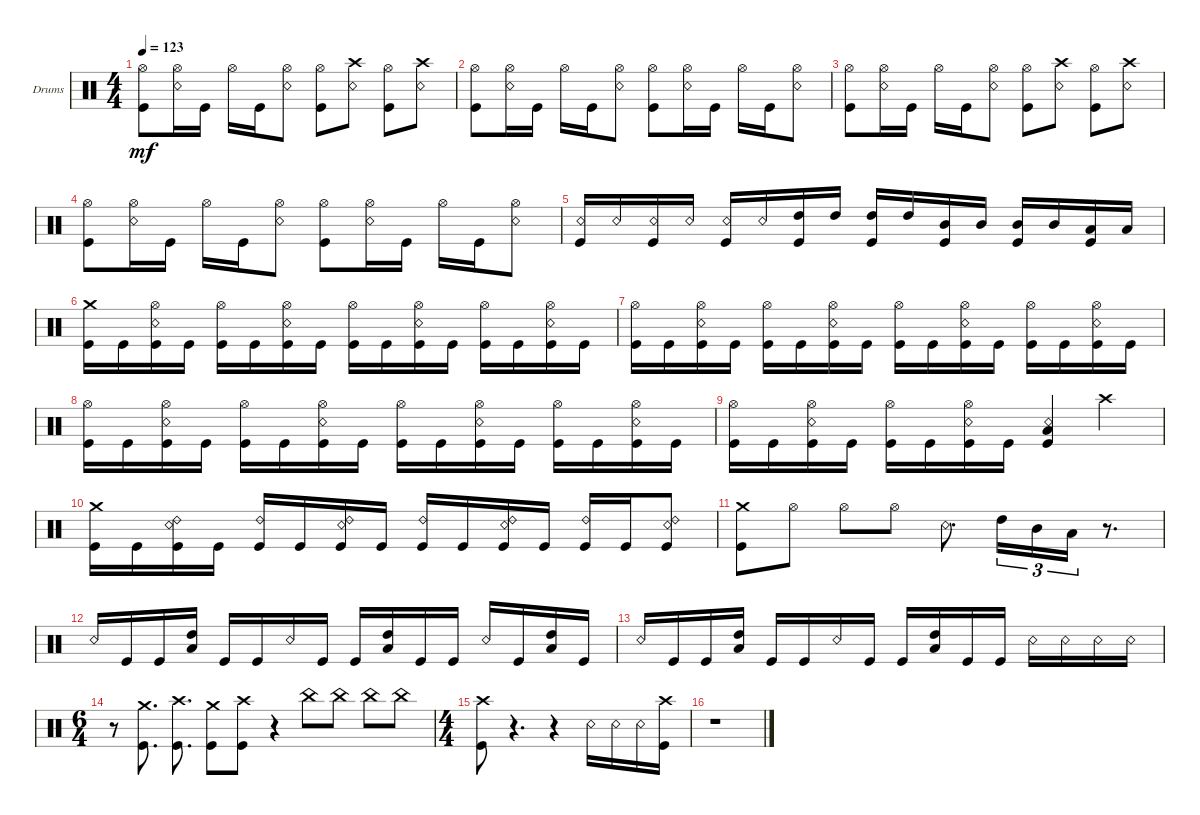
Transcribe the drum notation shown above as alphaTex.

\defaultSystemsLayout 4
\bracketExtendMode groupsimilarinstruments
\firstSystemTrackNameOrientation horizontal
\otherSystemsTrackNameOrientation horizontal
\track ("Drums" "Drums") {instrument percussion}
\staff {score}
\articulation defaults
\ts (4 4)
\tempo 123
\clef neutral
\scale
0.333333
\ks c
("Kick (hit)" "Hi-Hat (open)").8{dy mf} ("Snare (rim shot)" "Hi-Hat (open)").16 "Kick (hit)".16 "Hi-Hat (open)".16 "Kick (hit)".16 ("Snare (rim shot)" "Hi-Hat (open)").8 ("Kick (hit)" "Hi-Hat (open)").8 ("Snare (rim shot)" "Crash high (hit)").8 ("Kick (hit)" "Hi-Hat (open)").8 ("Snare (rim shot)" "Crash high (hit)").8 |
\scale
0.333333 ("Kick (hit)" "Hi-Hat (open)").8 ("Snare (rim shot)" "Hi-Hat (open)").16 "Kick (hit)".16 "Hi-Hat (open)".16 "Kick (hit)".16 ("Snare (rim shot)" "Hi-Hat (open)").8 ("Kick (hit)" "Hi-Hat (open)").8 ("Snare (rim shot)" "Hi-Hat (open)").16 "Kick (hit)".16 "Hi-Hat (open)".16 "Kick (hit)".16 ("Snare (rim shot)" "Hi-Hat (open)").8 |
\scale
0.333333 ("Kick (hit)" "Hi-Hat (open)").8 ("Snare (rim shot)" "Hi-Hat (open)").16 "Kick (hit)".16 "Hi-Hat (open)".16 "Kick (hit)".16 ("Snare (rim shot)" "Hi-Hat (open)").8 ("Kick (hit)" "Hi-Hat (open)").8 ("Snare (rim shot)" "Crash high (hit)").8 ("Kick (hit)" "Hi-Hat (open)").8 ("Snare (rim shot)" "Crash high (hit)").8 |
\scale
0.333333 ("Kick (hit)" "Hi-Hat (open)").8 ("Snare (rim shot)" "Hi-Hat (open)").16 "Kick (hit)".16 "Hi-Hat (open)".16 "Kick (hit)".16 ("Snare (rim shot)" "Hi-Hat (open)").8 ("Kick (hit)" "Hi-Hat (open)").8 ("Snare (rim shot)" "Hi-Hat (open)").16 "Kick (hit)".16 "Hi-Hat (open)".16 "Kick (hit)".16 ("Snare (rim shot)" "Hi-Hat (open)").8 |
\scale
0.333333 ("Snare (rim shot)" "Kick (hit)").16 "Snare (rim shot)".16 ("Snare (rim shot)" "Kick (hit)").16 "Snare (rim shot)".16 ("Snare (rim shot)" "Kick (hit)").16 "Snare (rim shot)".16 ("High Tom (hit)" "Kick (hit)").16 "High Tom (hit)".16 ("High Tom (hit)" "Kick (hit)").16 "High Tom (hit)".16 ("Mid Tom (hit)" "Kick (hit)").16 "Mid Tom (hit)".16 ("Mid Tom (hit)" "Kick (hit)").16 "Mid Tom (hit)".16 ("Low Tom (hit)" "Kick (hit)").16 "Low Tom (hit)".16 |
\scale
0.333333 ("Kick (hit)" "Crash medium (hit)").16 "Kick (hit)".16 ("Kick (hit)" "Hi-Hat (open)" "Snare (rim shot)").16 "Kick (hit)".16 ("Kick (hit)" "Hi-Hat (open)").16 "Kick (hit)".16 ("Kick (hit)" "Hi-Hat (open)" "Snare (rim shot)").16 "Kick (hit)".16 ("Kick (hit)" "Hi-Hat (open)").16 "Kick (hit)".16 ("Kick (hit)" "Hi-Hat (open)" "Snare (rim shot)").16 "Kick (hit)".16 ("Kick (hit)" "Hi-Hat (open)").16 "Kick (hit)".16 ("Kick (hit)" "Hi-Hat (open)" "Snare (rim shot)").16 "Kick (hit)".16 |
\scale
0.333333 ("Kick (hit)" "Hi-Hat (open)").16 "Kick (hit)".16 ("Kick (hit)" "Hi-Hat (open)" "Snare (rim shot)").16 "Kick (hit)".16 ("Kick (hit)" "Hi-Hat (open)").16 "Kick (hit)".16 ("Kick (hit)" "Hi-Hat (open)" "Snare (rim shot)").16 "Kick (hit)".16 ("Kick (hit)" "Hi-Hat (open)").16 "Kick (hit)".16 ("Kick (hit)" "Hi-Hat (open)" "Snare (rim shot)").16 "Kick (hit)".16 ("Kick (hit)" "Hi-Hat (open)").16 "Kick (hit)".16 ("Kick (hit)" "Hi-Hat (open)" "Snare (rim shot)").16 "Kick (hit)".16 |
\scale
0.333333 ("Kick (hit)" "Hi-Hat (open)").16 "Kick (hit)".16 ("Kick (hit)" "Hi-Hat (open)" "Snare (rim shot)").16 "Kick (hit)".16 ("Kick (hit)" "Hi-Hat (open)").16 "Kick (hit)".16 ("Kick (hit)" "Hi-Hat (open)" "Snare (rim shot)").16 "Kick (hit)".16 ("Kick (hit)" "Hi-Hat (open)").16 "Kick (hit)".16 ("Kick (hit)" "Hi-Hat (open)" "Snare (rim shot)").16 "Kick (hit)".16 ("Kick (hit)" "Hi-Hat (open)").16 "Kick (hit)".16 ("Kick (hit)" "Hi-Hat (open)" "Snare (rim shot)").16 "Kick (hit)".16 |
\scale
0.333333 ("Kick (hit)" "Hi-Hat (open)").16 "Kick (hit)".16 ("Kick (hit)" "Hi-Hat (open)" "Snare (rim shot)").16 "Kick (hit)".16 ("Kick (hit)" "Hi-Hat (open)").16 "Kick (hit)".16 ("Kick (hit)" "Hi-Hat (open)" "Snare (rim shot)").16 "Kick (hit)".16 ("Kick (hit)" "Snare (rim shot)" "Low Tom (hit)").4 "Crash high (hit)".4 |
\scale
0.333333 ("Kick (hit)" "Crash medium (hit)").16 "Kick (hit)".16 ("Kick (hit)" "Ride (bell) 2" "Snare (rim shot)").16 "Kick (hit)".16 ("Kick (hit)" "Ride (bell) 2").16 "Kick (hit)".16 ("Kick (hit)" "Ride (bell) 2" "Snare (rim shot)").16 "Kick (hit)".16 ("Kick (hit)" "Ride (bell) 2").16 "Kick (hit)".16 ("Kick (hit)" "Ride (bell) 2" "Snare (rim shot)").16 "Kick (hit)".16 ("Kick (hit)" "Ride (bell) 2").16 "Kick (hit)".16 ("Kick (hit)" "Ride (bell) 2" "Snare (rim shot)").8 |
\scale
0.333333 ("Kick (hit)" "Crash medium (hit)").8 "Hi-Hat (open)".8 "Hi-Hat (open)".8 "Hi-Hat (open)".8 "Snare (rim shot)".8{d} "High Tom (hit)".16{tu (3 2)} "Mid Tom (hit)".16{tu (3 2)} "Low Tom (hit)".16{tu (3 2)} r.8{d} |
\scale
0.333333 "Snare (rim shot)".16 "Kick (hit)".16 "Kick (hit)".16 ("Low Tom (hit)" "High Tom (hit)").16 "Kick (hit)".16 "Kick (hit)".16 "Snare (rim shot)".16 "Kick (hit)".16 "Kick (hit)".16 ("High Tom (hit)" "Low Tom (hit)").16 "Kick (hit)".16 "Kick (hit)".16 "Snare (rim shot)".16 "Kick (hit)".16 ("Low Tom (hit)" "High Tom (hit)").16 "Kick (hit)".16 |
\scale
0.333333 "Snare (rim shot)".16 "Kick (hit)".16 "Kick (hit)".16 ("Low Tom (hit)" "High Tom (hit)").16 "Kick (hit)".16 "Kick (hit)".16 "Snare (rim shot)".16 "Kick (hit)".16 "Kick (hit)".16 ("High Tom (hit)" "Low Tom (hit)").16 "Kick (hit)".16 "Kick (hit)".16 "Snare (rim shot)".16 "Snare (rim shot)".16 "Snare (rim shot)".16 "Snare (rim shot)".16 |
\ts (6 4)
r.8 ("Kick (hit)" "Crash medium (hit)").8{d} ("Kick (hit)" "Crash high (hit)").8{d} ("Kick (hit)" "Crash medium (hit)").8 ("Kick (hit)" "Crash high (hit)").8 r.4 "China (hit)".8 "China (hit)".8 "China (hit)".8 "China (hit)".8 |
\ts (4 4)
("Crash high (hit)" "Kick (hit)").8 r.4{d} r.4 "Snare (rim shot)".16 "Snare (rim shot)".16 "Snare (rim shot)".16 ("Crash high (hit)" "Kick (hit)").16 |
r.1
